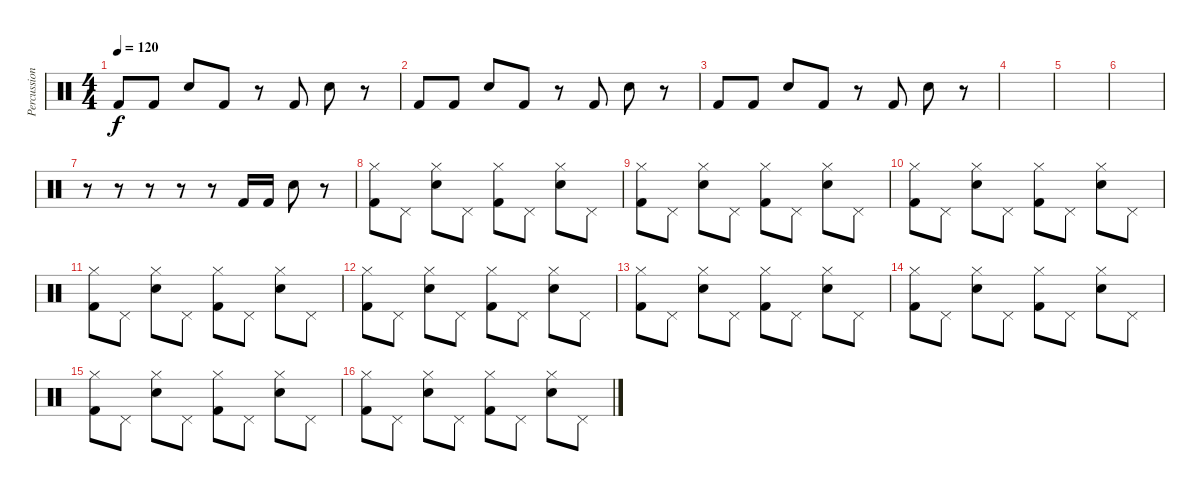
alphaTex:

\track ("Percussion" "Percussion") {instrument percussion}
\staff {score}
\articulation defaults
\ts (4 4)
\tempo 120
\clef neutral
\ks c "Kick (hit) 2".8{dy f} "Kick (hit) 2".8 "Snare (hit) 2".8 "Kick (hit) 2".8
r.8 "Kick (hit) 2".8 "Snare (hit) 2".8 r.8 |
"Kick (hit) 2".8 "Kick (hit) 2".8 "Snare (hit) 2".8 "Kick (hit) 2".8 r.8 "Kick (hit) 2".8 "Snare (hit) 2".8 r.8 |
"Kick (hit) 2".8 "Kick (hit) 2".8 "Snare (hit) 2".8 "Kick (hit) 2".8 r.8 "Kick (hit) 2".8 "Snare (hit) 2".8 r.8 |
|
|
|
r.8 r.8 r.8 r.8 r.8 "Kick (hit) 2".16 "Kick (hit) 2".16 "Snare (hit) 2".8 r.8 |
("Kick (hit) 2" "Hi-Hat (closed)").8 "Pedal Hi-Hat (hit)".8 ("Snare (hit) 2" "Hi-Hat (closed)").8 "Pedal Hi-Hat (hit)".8 ("Kick (hit) 2" "Hi-Hat (closed)").8 "Pedal Hi-Hat (hit)".8 ("Snare (hit) 2" "Hi-Hat (closed)").8 "Pedal Hi-Hat (hit)".8 |
("Kick (hit) 2" "Hi-Hat (closed)").8 "Pedal Hi-Hat (hit)".8 ("Snare (hit) 2" "Hi-Hat (closed)").8 "Pedal Hi-Hat (hit)".8 ("Kick (hit) 2" "Hi-Hat (closed)").8 "Pedal Hi-Hat (hit)".8 ("Snare (hit) 2" "Hi-Hat (closed)").8 "Pedal Hi-Hat (hit)".8 |
("Kick (hit) 2" "Hi-Hat (closed)").8 "Pedal Hi-Hat (hit)".8 ("Snare (hit) 2" "Hi-Hat (closed)").8 "Pedal Hi-Hat (hit)".8 ("Kick (hit) 2" "Hi-Hat (closed)").8 "Pedal Hi-Hat (hit)".8 ("Snare (hit) 2" "Hi-Hat (closed)").8 "Pedal Hi-Hat (hit)".8 |
("Kick (hit) 2" "Hi-Hat (closed)").8 "Pedal Hi-Hat (hit)".8 ("Snare (hit) 2" "Hi-Hat (closed)").8 "Pedal Hi-Hat (hit)".8 ("Kick (hit) 2" "Hi-Hat (closed)").8 "Pedal Hi-Hat (hit)".8 ("Snare (hit) 2" "Hi-Hat (closed)").8 "Pedal Hi-Hat (hit)".8 |
("Kick (hit) 2" "Hi-Hat (closed)").8 "Pedal Hi-Hat (hit)".8 ("Snare (hit) 2" "Hi-Hat (closed)").8 "Pedal Hi-Hat (hit)".8 ("Kick (hit) 2" "Hi-Hat (closed)").8 "Pedal Hi-Hat (hit)".8 ("Snare (hit) 2" "Hi-Hat (closed)").8 "Pedal Hi-Hat (hit)".8 |
("Kick (hit) 2" "Hi-Hat (closed)").8 "Pedal Hi-Hat (hit)".8 ("Snare (hit) 2" "Hi-Hat (closed)").8 "Pedal Hi-Hat (hit)".8 ("Kick (hit) 2" "Hi-Hat (closed)").8 "Pedal Hi-Hat (hit)".8 ("Snare (hit) 2" "Hi-Hat (closed)").8 "Pedal Hi-Hat (hit)".8 |
("Kick (hit) 2" "Hi-Hat (closed)").8 "Pedal Hi-Hat (hit)".8 ("Snare (hit) 2" "Hi-Hat (closed)").8 "Pedal Hi-Hat (hit)".8 ("Kick (hit) 2" "Hi-Hat (closed)").8 "Pedal Hi-Hat (hit)".8 ("Snare (hit) 2" "Hi-Hat (closed)").8 "Pedal Hi-Hat (hit)".8 |
("Kick (hit) 2" "Hi-Hat (closed)").8 "Pedal Hi-Hat (hit)".8 ("Snare (hit) 2" "Hi-Hat (closed)").8 "Pedal Hi-Hat (hit)".8 ("Kick (hit) 2" "Hi-Hat (closed)").8 "Pedal Hi-Hat (hit)".8 ("Snare (hit) 2" "Hi-Hat (closed)").8 "Pedal Hi-Hat (hit)".8 |
("Kick (hit) 2" "Hi-Hat (closed)").8 "Pedal Hi-Hat (hit)".8 ("Snare (hit) 2" "Hi-Hat (closed)").8 "Pedal Hi-Hat (hit)".8 ("Kick (hit) 2" "Hi-Hat (closed)").8 "Pedal Hi-Hat (hit)".8 ("Snare (hit) 2" "Hi-Hat (closed)").8 "Pedal Hi-Hat (hit)".8
